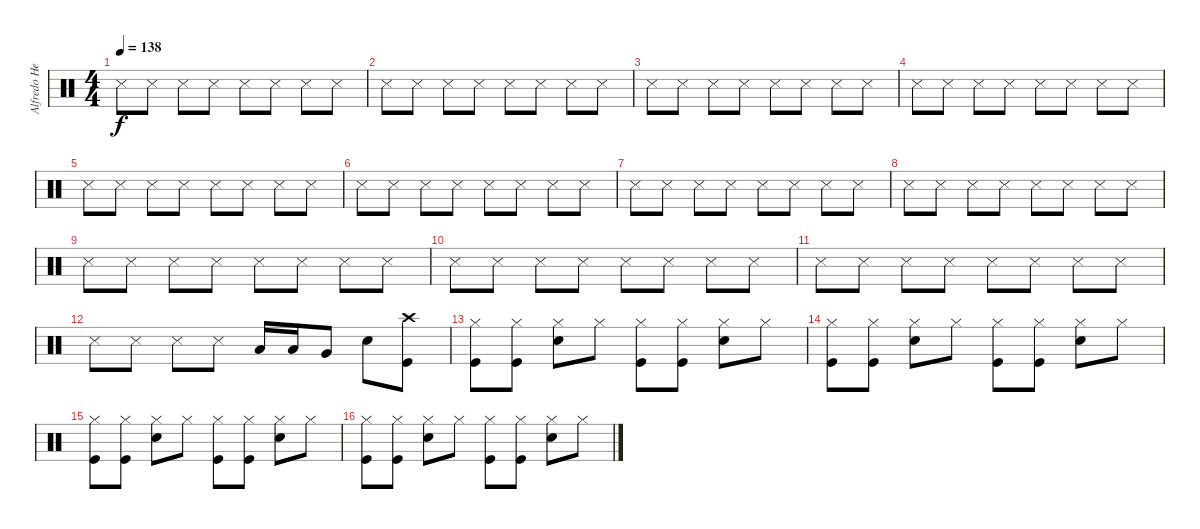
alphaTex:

\track ("Alfredo Hernandez" "Alfredo He") {instrument percussion}
\staff {score}
\articulation defaults
\ts (4 4)
\tempo 138
\clef neutral
\ks c "Snare (side stick) 3".8{dy f} "Snare (side stick) 3".8{volume 10} "Snare (side stick) 3".8{volume 13} "Snare (side stick) 3".8{volume 10} "Snare (side stick) 3".8{volume 13} "Snare (side stick) 3".8{volume 10} "Snare (side stick) 3".8{volume 13} "Snare (side stick) 3".8{volume 10}
|
"Snare (side stick) 3".8{volume 13} "Snare (side stick) 3".8{volume 10} "Snare (side stick) 3".8{volume 13} "Snare (side stick) 3".8{volume 10} "Snare (side stick) 3".8{volume 13} "Snare (side stick) 3".8{volume 10} "Snare (side stick) 3".8{volume 13} "Snare (side stick) 3".8{volume 10} |
"Snare (side stick) 3".8 "Snare (side stick) 3".8{volume 10} "Snare (side stick) 3".8{volume 13} "Snare (side stick) 3".8{volume 10} "Snare (side stick) 3".8{volume 13} "Snare (side stick) 3".8{volume 10} "Snare (side stick) 3".8{volume 13} "Snare (side stick) 3".8{volume 10} |
"Snare (side stick) 3".8{volume 13} "Snare (side stick) 3".8{volume 10} "Snare (side stick) 3".8{volume 13} "Snare (side stick) 3".8{volume 10} "Snare (side stick) 3".8{volume 13} "Snare (side stick) 3".8{volume 10} "Snare (side stick) 3".8{volume 13} "Snare (side stick) 3".8{volume 10} |
"Snare (side stick) 3".8{volume 13} "Snare (side stick) 3".8{volume 10} "Snare (side stick) 3".8{volume 13} "Snare (side stick) 3".8{volume 10} "Snare (side stick) 3".8{volume 13} "Snare (side stick) 3".8{volume 10} "Snare (side stick) 3".8{volume 13} "Snare (side stick) 3".8{volume 10} |
"Snare (side stick) 3".8{volume 13} "Snare (side stick) 3".8{volume 10} "Snare (side stick) 3".8{volume 13} "Snare (side stick) 3".8{volume 10} "Snare (side stick) 3".8{volume 13} "Snare (side stick) 3".8{volume 10} "Snare (side stick) 3".8{volume 13} "Snare (side stick) 3".8{volume 10} |
"Snare (side stick) 3".8{volume 13} "Snare (side stick) 3".8{volume 10} "Snare (side stick) 3".8{volume 13} "Snare (side stick) 3".8{volume 10} "Snare (side stick) 3".8{volume 13} "Snare (side stick) 3".8{volume 10} "Snare (side stick) 3".8{volume 13} "Snare (side stick) 3".8{volume 10} |
"Snare (side stick) 3".8{volume 13} "Snare (side stick) 3".8{volume 10} "Snare (side stick) 3".8{volume 13} "Snare (side stick) 3".8{volume 10} "Snare (side stick) 3".8{volume 13} "Snare (side stick) 3".8{volume 10} "Snare (side stick) 3".8{volume 13} "Snare (side stick) 3".8{volume 10} |
"Snare (side stick) 3".8{volume 13} "Snare (side stick) 3".8{volume 10} "Snare (side stick) 3".8{volume 13} "Snare (side stick) 3".8{volume 10} "Snare (side stick) 3".8{volume 13} "Snare (side stick) 3".8{volume 10} "Snare (side stick) 3".8{volume 13} "Snare (side stick) 3".8{volume 10} |
"Snare (side stick) 3".8{volume 13} "Snare (side stick) 3".8{volume 10} "Snare (side stick) 3".8{volume 13} "Snare (side stick) 3".8{volume 10} "Snare (side stick) 3".8{volume 13} "Snare (side stick) 3".8{volume 10} "Snare (side stick) 3".8{volume 13} "Snare (side stick) 3".8{volume 10} |
"Snare (side stick) 3".8{volume 13} "Snare (side stick) 3".8{volume 10} "Snare (side stick) 3".8{volume 13} "Snare (side stick) 3".8{volume 10} "Snare (side stick) 3".8{volume 13} "Snare (side stick) 3".8{volume 10} "Snare (side stick) 3".8{volume 13} "Snare (side stick) 3".8{volume 10} |
"Snare (side stick) 3".8{volume 13} "Snare (side stick) 3".8{volume 10} "Snare (side stick) 3".8{volume 13} "Snare (side stick) 3".8{volume 10} "Low Tom (hit)".16{volume 13 balance 8} "Low Tom (hit)".16 "Very Low Tom (hit)".8 "Snare (hit) 2".8 ("Kick (hit)" "Crash high (hit)").8 |
("Kick (hit)" "Hi-Hat (closed)").8 ("Kick (hit)" "Hi-Hat (closed)").8 ("Snare (hit) 2" "Hi-Hat (closed)").8 "Hi-Hat (closed)".8 ("Kick (hit)" "Hi-Hat (closed)").8 ("Kick (hit)" "Hi-Hat (closed)").8 ("Snare (hit) 2" "Hi-Hat (closed)").8 "Hi-Hat (closed)".8 |
("Kick (hit)" "Hi-Hat (closed)").8 ("Kick (hit)" "Hi-Hat (closed)").8 ("Snare (hit) 2" "Hi-Hat (closed)").8 "Hi-Hat (closed)".8 ("Kick (hit)" "Hi-Hat (closed)").8 ("Kick (hit)" "Hi-Hat (closed)").8 ("Snare (hit) 2" "Hi-Hat (closed)").8 "Hi-Hat (closed)".8 |
("Kick (hit)" "Hi-Hat (closed)").8 ("Kick (hit)" "Hi-Hat (closed)").8 ("Snare (hit) 2" "Hi-Hat (closed)").8 "Hi-Hat (closed)".8 ("Kick (hit)" "Hi-Hat (closed)").8 ("Kick (hit)" "Hi-Hat (closed)").8 ("Snare (hit) 2" "Hi-Hat (closed)").8 "Hi-Hat (closed)".8 |
("Kick (hit)" "Hi-Hat (closed)").8 ("Kick (hit)" "Hi-Hat (closed)").8 ("Snare (hit) 2" "Hi-Hat (closed)").8 "Hi-Hat (closed)".8 ("Kick (hit)" "Hi-Hat (closed)").8 ("Kick (hit)" "Hi-Hat (closed)").8 ("Snare (hit) 2" "Hi-Hat (closed)").8 "Hi-Hat (closed)".8
